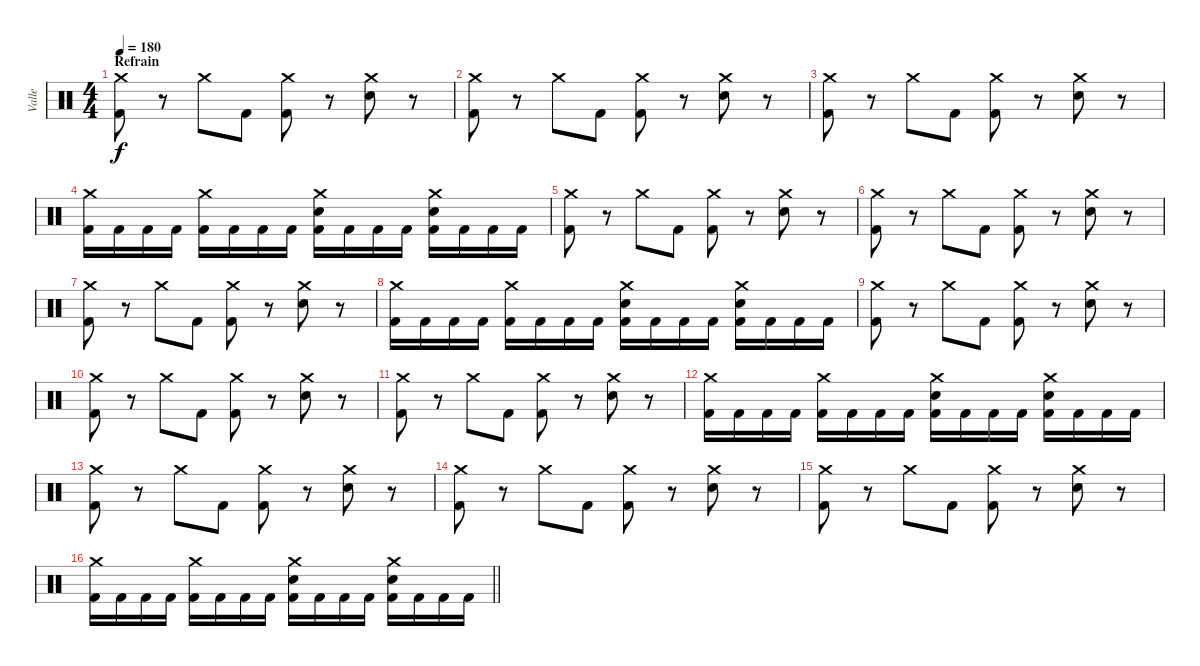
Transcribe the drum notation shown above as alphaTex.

\track ("Valle" "Valle") {instrument percussion}
\staff {score}
\articulation defaults
\ts (4 4)
\section ("" "Refrain")
\tempo 180
\clef neutral
\ks c
("Crash medium (hit)" "Kick (hit) 2").8{dy f} r.8 "Crash medium (hit)".8 "Kick (hit) 2".8 ("Crash medium (hit)" "Kick (hit) 2").8 r.8 ("Crash medium (hit)" "Snare (hit) 2").8 r.8 |
("Crash medium (hit)" "Kick (hit) 2").8 r.8 "Crash medium (hit)".8 "Kick (hit) 2".8 ("Crash medium (hit)" "Kick (hit) 2").8 r.8 ("Crash medium (hit)" "Snare (hit) 2").8 r.8 |
("Crash medium (hit)" "Kick (hit) 2").8 r.8 "Crash medium (hit)".8 "Kick (hit) 2".8 ("Crash medium (hit)" "Kick (hit) 2").8 r.8 ("Crash medium (hit)" "Snare (hit) 2").8 r.8 |
("Crash medium (hit)" "Kick (hit) 2").16 "Kick (hit) 2".16 "Kick (hit) 2".16 "Kick (hit) 2".16 ("Crash medium (hit)" "Kick (hit) 2").16 "Kick (hit) 2".16 "Kick (hit) 2".16 "Kick (hit) 2".16 ("Crash medium (hit)" "Snare (hit) 2" "Kick (hit) 2").16 "Kick (hit) 2".16 "Kick (hit) 2".16 "Kick (hit) 2".16 ("Crash medium (hit)" "Snare (hit) 2" "Kick (hit) 2").16 "Kick (hit) 2".16 "Kick (hit) 2".16 "Kick (hit) 2".16 |
("Crash medium (hit)" "Kick (hit) 2").8 r.8 "Crash medium (hit)".8 "Kick (hit) 2".8 ("Crash medium (hit)" "Kick (hit) 2").8 r.8 ("Crash medium (hit)" "Snare (hit) 2").8 r.8 |
("Crash medium (hit)" "Kick (hit) 2").8 r.8 "Crash medium (hit)".8 "Kick (hit) 2".8 ("Crash medium (hit)" "Kick (hit) 2").8 r.8 ("Crash medium (hit)" "Snare (hit) 2").8 r.8 |
("Crash medium (hit)" "Kick (hit) 2").8 r.8 "Crash medium (hit)".8 "Kick (hit) 2".8 ("Crash medium (hit)" "Kick (hit) 2").8 r.8 ("Crash medium (hit)" "Snare (hit) 2").8 r.8 |
("Crash medium (hit)" "Kick (hit) 2").16 "Kick (hit) 2".16 "Kick (hit) 2".16 "Kick (hit) 2".16 ("Crash medium (hit)" "Kick (hit) 2").16 "Kick (hit) 2".16 "Kick (hit) 2".16 "Kick (hit) 2".16 ("Crash medium (hit)" "Snare (hit) 2" "Kick (hit) 2").16 "Kick (hit) 2".16 "Kick (hit) 2".16 "Kick (hit) 2".16 ("Crash medium (hit)" "Snare (hit) 2" "Kick (hit) 2").16 "Kick (hit) 2".16 "Kick (hit) 2".16 "Kick (hit) 2".16 |
("Crash medium (hit)" "Kick (hit) 2").8 r.8 "Crash medium (hit)".8 "Kick (hit) 2".8 ("Crash medium (hit)" "Kick (hit) 2").8 r.8 ("Crash medium (hit)" "Snare (hit) 2").8 r.8 |
("Crash medium (hit)" "Kick (hit) 2").8 r.8 "Crash medium (hit)".8 "Kick (hit) 2".8 ("Crash medium (hit)" "Kick (hit) 2").8 r.8 ("Crash medium (hit)" "Snare (hit) 2").8 r.8 |
("Crash medium (hit)" "Kick (hit) 2").8 r.8 "Crash medium (hit)".8 "Kick (hit) 2".8 ("Crash medium (hit)" "Kick (hit) 2").8 r.8 ("Crash medium (hit)" "Snare (hit) 2").8 r.8 |
("Crash medium (hit)" "Kick (hit) 2").16 "Kick (hit) 2".16 "Kick (hit) 2".16 "Kick (hit) 2".16 ("Crash medium (hit)" "Kick (hit) 2").16 "Kick (hit) 2".16 "Kick (hit) 2".16 "Kick (hit) 2".16 ("Crash medium (hit)" "Snare (hit) 2" "Kick (hit) 2").16 "Kick (hit) 2".16 "Kick (hit) 2".16 "Kick (hit) 2".16 ("Crash medium (hit)" "Snare (hit) 2" "Kick (hit) 2").16 "Kick (hit) 2".16 "Kick (hit) 2".16 "Kick (hit) 2".16 |
("Crash medium (hit)" "Kick (hit) 2").8 r.8 "Crash medium (hit)".8 "Kick (hit) 2".8 ("Crash medium (hit)" "Kick (hit) 2").8 r.8 ("Crash medium (hit)" "Snare (hit) 2").8 r.8 |
("Crash medium (hit)" "Kick (hit) 2").8 r.8 "Crash medium (hit)".8 "Kick (hit) 2".8 ("Crash medium (hit)" "Kick (hit) 2").8 r.8 ("Crash medium (hit)" "Snare (hit) 2").8 r.8 |
("Crash medium (hit)" "Kick (hit) 2").8 r.8 "Crash medium (hit)".8 "Kick (hit) 2".8 ("Crash medium (hit)" "Kick (hit) 2").8 r.8 ("Crash medium (hit)" "Snare (hit) 2").8 r.8 |
\barLineRight lightlight
("Crash medium (hit)" "Kick (hit) 2").16 "Kick (hit) 2".16 "Kick (hit) 2".16 "Kick (hit) 2".16 ("Crash medium (hit)" "Kick (hit) 2").16 "Kick (hit) 2".16 "Kick (hit) 2".16 "Kick (hit) 2".16 ("Crash medium (hit)" "Snare (hit) 2" "Kick (hit) 2").16 "Kick (hit) 2".16 "Kick (hit) 2".16 "Kick (hit) 2".16 ("Crash medium (hit)" "Snare (hit) 2" "Kick (hit) 2").16 "Kick (hit) 2".16 "Kick (hit) 2".16 "Kick (hit) 2".16
